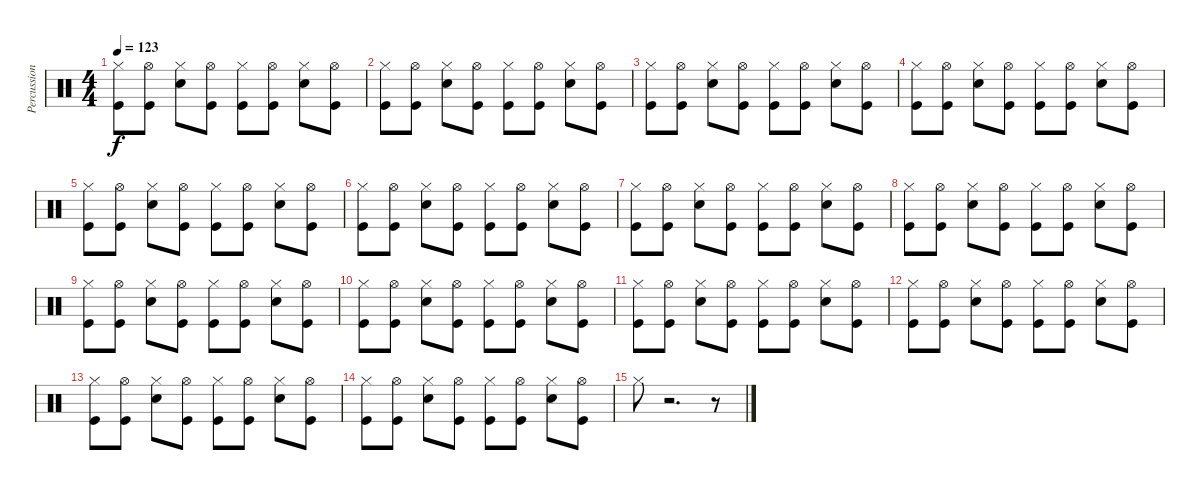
\track ("Percussion" "Percussion") {instrument percussion}
\staff {score}
\articulation defaults
\ts (4 4)
\tempo 123
\clef neutral
\ks c
("Hi-Hat (closed)" "Kick (hit)").8{dy f beam Down} ("Hi-Hat (open)" "Kick (hit)").8{beam Down} ("Hi-Hat (closed)" "Snare (hit) 2").8{beam Down} ("Hi-Hat (open)" "Kick (hit)").8{beam Down} ("Hi-Hat (closed)" "Kick (hit)").8{beam Down} ("Hi-Hat (open)" "Kick (hit)").8{beam Down} ("Hi-Hat (closed)" "Snare (hit) 2").8{beam Down} ("Hi-Hat (open)" "Kick (hit)").8{beam Down} |
("Hi-Hat (closed)" "Kick (hit)").8 ("Hi-Hat (open)" "Kick (hit)").8 ("Hi-Hat (closed)" "Snare (hit) 2").8 ("Hi-Hat (open)" "Kick (hit)").8 ("Hi-Hat (closed)" "Kick (hit)").8 ("Hi-Hat (open)" "Kick (hit)").8 ("Hi-Hat (closed)" "Snare (hit) 2").8 ("Hi-Hat (open)" "Kick (hit)").8 |
("Hi-Hat (closed)" "Kick (hit)").8 ("Hi-Hat (open)" "Kick (hit)").8 ("Hi-Hat (closed)" "Snare (hit) 2").8 ("Hi-Hat (open)" "Kick (hit)").8 ("Hi-Hat (closed)" "Kick (hit)").8 ("Hi-Hat (open)" "Kick (hit)").8 ("Hi-Hat (closed)" "Snare (hit) 2").8 ("Hi-Hat (open)" "Kick (hit)").8 |
("Hi-Hat (closed)" "Kick (hit)").8 ("Hi-Hat (open)" "Kick (hit)").8 ("Hi-Hat (closed)" "Snare (hit) 2").8 ("Hi-Hat (open)" "Kick (hit)").8 ("Hi-Hat (closed)" "Kick (hit)").8 ("Hi-Hat (open)" "Kick (hit)").8 ("Hi-Hat (closed)" "Snare (hit) 2").8 ("Hi-Hat (open)" "Kick (hit)").8 |
("Hi-Hat (closed)" "Kick (hit)").8 ("Hi-Hat (open)" "Kick (hit)").8 ("Hi-Hat (closed)" "Snare (hit) 2").8 ("Hi-Hat (open)" "Kick (hit)").8 ("Hi-Hat (closed)" "Kick (hit)").8 ("Hi-Hat (open)" "Kick (hit)").8 ("Hi-Hat (closed)" "Snare (hit) 2").8 ("Hi-Hat (open)" "Kick (hit)").8 |
("Hi-Hat (closed)" "Kick (hit)").8 ("Hi-Hat (open)" "Kick (hit)").8 ("Hi-Hat (closed)" "Snare (hit) 2").8 ("Hi-Hat (open)" "Kick (hit)").8 ("Hi-Hat (closed)" "Kick (hit)").8 ("Hi-Hat (open)" "Kick (hit)").8 ("Hi-Hat (closed)" "Snare (hit) 2").8 ("Hi-Hat (open)" "Kick (hit)").8 |
("Hi-Hat (closed)" "Kick (hit)").8 ("Hi-Hat (open)" "Kick (hit)").8 ("Hi-Hat (closed)" "Snare (hit) 2").8 ("Hi-Hat (open)" "Kick (hit)").8 ("Hi-Hat (closed)" "Kick (hit)").8 ("Hi-Hat (open)" "Kick (hit)").8 ("Hi-Hat (closed)" "Snare (hit) 2").8 ("Hi-Hat (open)" "Kick (hit)").8 |
("Hi-Hat (closed)" "Kick (hit)").8 ("Hi-Hat (open)" "Kick (hit)").8 ("Hi-Hat (closed)" "Snare (hit) 2").8 ("Hi-Hat (open)" "Kick (hit)").8 ("Hi-Hat (closed)" "Kick (hit)").8 ("Hi-Hat (open)" "Kick (hit)").8 ("Hi-Hat (closed)" "Snare (hit) 2").8 ("Hi-Hat (open)" "Kick (hit)").8 |
("Hi-Hat (closed)" "Kick (hit)").8{beam Down} ("Hi-Hat (open)" "Kick (hit)").8{beam Down} ("Hi-Hat (closed)" "Snare (hit) 2").8{beam Down} ("Hi-Hat (open)" "Kick (hit)").8{beam Down} ("Hi-Hat (closed)" "Kick (hit)").8{beam Down} ("Hi-Hat (open)" "Kick (hit)").8{beam Down} ("Hi-Hat (closed)" "Snare (hit) 2").8{beam Down} ("Hi-Hat (open)" "Kick (hit)").8{beam Down} |
("Hi-Hat (closed)" "Kick (hit)").8 ("Hi-Hat (open)" "Kick (hit)").8 ("Hi-Hat (closed)" "Snare (hit) 2").8 ("Hi-Hat (open)" "Kick (hit)").8 ("Hi-Hat (closed)" "Kick (hit)").8 ("Hi-Hat (open)" "Kick (hit)").8 ("Hi-Hat (closed)" "Snare (hit) 2").8 ("Hi-Hat (open)" "Kick (hit)").8 |
("Hi-Hat (closed)" "Kick (hit)").8 ("Hi-Hat (open)" "Kick (hit)").8 ("Hi-Hat (closed)" "Snare (hit) 2").8 ("Hi-Hat (open)" "Kick (hit)").8 ("Hi-Hat (closed)" "Kick (hit)").8 ("Hi-Hat (open)" "Kick (hit)").8 ("Hi-Hat (closed)" "Snare (hit) 2").8 ("Hi-Hat (open)" "Kick (hit)").8 |
("Hi-Hat (closed)" "Kick (hit)").8 ("Hi-Hat (open)" "Kick (hit)").8 ("Hi-Hat (closed)" "Snare (hit) 2").8 ("Hi-Hat (open)" "Kick (hit)").8 ("Hi-Hat (closed)" "Kick (hit)").8 ("Hi-Hat (open)" "Kick (hit)").8 ("Hi-Hat (closed)" "Snare (hit) 2").8 ("Hi-Hat (open)" "Kick (hit)").8 |
("Hi-Hat (closed)" "Kick (hit)").8 ("Hi-Hat (open)" "Kick (hit)").8 ("Hi-Hat (closed)" "Snare (hit) 2").8 ("Hi-Hat (open)" "Kick (hit)").8 ("Hi-Hat (closed)" "Kick (hit)").8 ("Hi-Hat (open)" "Kick (hit)").8 ("Hi-Hat (closed)" "Snare (hit) 2").8 ("Hi-Hat (open)" "Kick (hit)").8 |
("Hi-Hat (closed)" "Kick (hit)").8 ("Hi-Hat (open)" "Kick (hit)").8 ("Hi-Hat (closed)" "Snare (hit) 2").8 ("Hi-Hat (open)" "Kick (hit)").8 ("Hi-Hat (closed)" "Kick (hit)").8 ("Hi-Hat (open)" "Kick (hit)").8 ("Hi-Hat (closed)" "Snare (hit) 2").8 ("Hi-Hat (open)" "Kick (hit)").8 |
"Hi-Hat (closed)".8 r.2{d} r.8
